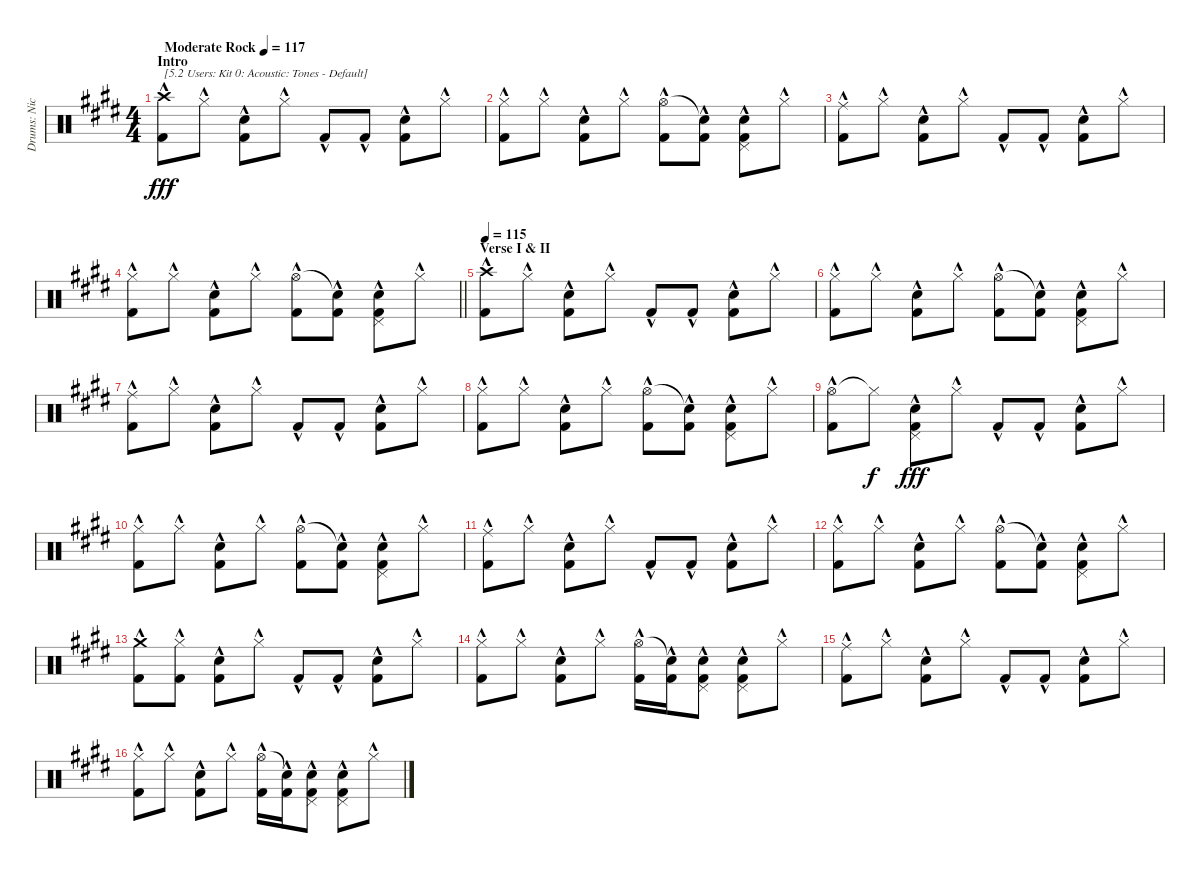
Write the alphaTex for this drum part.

\track ("Drums: Nick" "Drums: Nic") {instrument percussion}
\staff {score}
\articulation defaults
\ts (4 4)
\section ("" "Intro")
\tempo (117 "Moderate Rock")
\tempo 113
\tempo (117 "Moderate Rock")
\clef neutral
\ks e
("Crash high (hit)"{hac} "Kick (hit) 2"{hac}).8{txt "[5.2 Users: Kit 0: Acoustic: Tones - Default]" dy fff} "Hi-Hat (closed)"{hac}.8 ("Snare (hit) 2"{hac} "Kick (hit) 2"{hac}).8 "Hi-Hat (closed)"{hac}.8 "Kick (hit) 2"{hac}.8 "Kick (hit) 2"{hac}.8 ("Snare (hit) 2"{hac} "Kick (hit) 2"{hac}).8 "Hi-Hat (closed)"{hac}.8 |
("Hi-Hat (closed)" "Kick (hit) 2"{hac}).8 "Hi-Hat (closed)"{hac}.8 ("Snare (hit) 2"{hac} "Kick (hit) 2"{hac}).8 "Hi-Hat (closed)"{hac}.8 ("Hi-Hat (open)" "Kick (hit) 2"{hac}).8 ("Snare (hit)"{t} "Kick (hit) 2"{hac}).8 ("Pedal Hi-Hat (hit)" "Snare (hit) 2"{hac} "Kick (hit) 2"{hac}).8 "Hi-Hat (closed)"{hac}.8 |
("Ride (middle)" "Kick (hit) 2"{hac}).8 "Hi-Hat (closed)"{hac}.8 ("Snare (hit) 2"{hac} "Kick (hit) 2"{hac}).8 "Hi-Hat (closed)"{hac}.8 "Kick (hit) 2"{hac}.8 "Kick (hit) 2"{hac}.8 ("Snare (hit) 2"{hac} "Kick (hit) 2"{hac}).8 "Hi-Hat (closed)"{hac}.8 |
\barLineRight lightlight
("Hi-Hat (closed)" "Kick (hit) 2"{hac}).8 "Hi-Hat (closed)"{hac}.8 ("Snare (hit) 2"{hac} "Kick (hit) 2"{hac}).8 "Hi-Hat (closed)"{hac}.8 ("Hi-Hat (open)" "Kick (hit) 2"{hac}).8 ("Snare (hit)"{t} "Kick (hit) 2"{hac}).8 ("Pedal Hi-Hat (hit)" "Snare (hit) 2"{hac} "Kick (hit) 2"{hac}).8 "Hi-Hat (closed)"{hac}.8 |
\section ("" "Verse I & II")
\tempo 115
("Crash high (hit)"{hac} "Kick (hit) 2"{hac}).8 "Hi-Hat (closed)"{hac}.8 ("Snare (hit) 2"{hac} "Kick (hit) 2"{hac}).8 "Hi-Hat (closed)"{hac}.8 "Kick (hit) 2"{hac}.8 "Kick (hit) 2"{hac}.8 ("Snare (hit) 2"{hac} "Kick (hit) 2"{hac}).8 "Hi-Hat (closed)"{hac}.8 |
("Hi-Hat (closed)" "Kick (hit) 2"{hac}).8 "Hi-Hat (closed)"{hac}.8 ("Snare (hit) 2"{hac} "Kick (hit) 2"{hac}).8 "Hi-Hat (closed)"{hac}.8 ("Hi-Hat (open)" "Kick (hit) 2"{hac}).8 ("Snare (hit)"{t} "Kick (hit) 2"{hac}).8 ("Pedal Hi-Hat (hit)" "Snare (hit) 2"{hac} "Kick (hit) 2"{hac}).8 "Hi-Hat (closed)"{hac}.8 |
("Ride (middle)" "Kick (hit) 2"{hac}).8 "Hi-Hat (closed)"{hac}.8 ("Snare (hit) 2"{hac} "Kick (hit) 2"{hac}).8 "Hi-Hat (closed)"{hac}.8 "Kick (hit) 2"{hac}.8 "Kick (hit) 2"{hac}.8 ("Snare (hit) 2"{hac} "Kick (hit) 2"{hac}).8 "Hi-Hat (closed)"{hac}.8 |
("Hi-Hat (closed)" "Kick (hit) 2"{hac}).8 "Hi-Hat (closed)"{hac}.8 ("Snare (hit) 2"{hac} "Kick (hit) 2"{hac}).8 "Hi-Hat (closed)"{hac}.8 ("Hi-Hat (open)" "Kick (hit) 2"{hac}).8 ("Snare (hit)"{t} "Kick (hit) 2"{hac}).8 ("Pedal Hi-Hat (hit)" "Snare (hit) 2"{hac} "Kick (hit) 2"{hac}).8 "Hi-Hat (closed)"{hac}.8 |
("Hi-Hat (open)" "Kick (hit) 2"{hac}).8 "Hi-Hat (closed)"{t}.8{dy f} ("Pedal Hi-Hat (hit)" "Snare (hit) 2"{hac} "Kick (hit) 2"{hac}).8{dy fff} "Hi-Hat (closed)"{hac}.8 "Kick (hit) 2"{hac}.8 "Kick (hit) 2"{hac}.8 ("Snare (hit) 2"{hac} "Kick (hit) 2"{hac}).8 "Hi-Hat (closed)"{hac}.8 |
("Hi-Hat (closed)" "Kick (hit) 2"{hac}).8 "Hi-Hat (closed)"{hac}.8 ("Snare (hit) 2"{hac} "Kick (hit) 2"{hac}).8 "Hi-Hat (closed)"{hac}.8 ("Hi-Hat (open)" "Kick (hit) 2"{hac}).8 ("Snare (hit)"{t} "Kick (hit) 2"{hac}).8 ("Pedal Hi-Hat (hit)" "Snare (hit) 2"{hac} "Kick (hit) 2"{hac}).8 "Hi-Hat (closed)"{hac}.8 |
("Ride (middle)" "Kick (hit) 2"{hac}).8 "Hi-Hat (closed)"{hac}.8 ("Snare (hit) 2"{hac} "Kick (hit) 2"{hac}).8 "Hi-Hat (closed)"{hac}.8 "Kick (hit) 2"{hac}.8 "Kick (hit) 2"{hac}.8 ("Snare (hit) 2"{hac} "Kick (hit) 2"{hac}).8 "Hi-Hat (closed)"{hac}.8 |
("Hi-Hat (closed)" "Kick (hit) 2"{hac}).8 "Hi-Hat (closed)"{hac}.8 ("Snare (hit) 2"{hac} "Kick (hit) 2"{hac}).8 "Hi-Hat (closed)"{hac}.8 ("Hi-Hat (open)" "Kick (hit) 2"{hac}).8 ("Snare (hit)"{t} "Kick (hit) 2"{hac}).8 ("Pedal Hi-Hat (hit)" "Snare (hit) 2"{hac} "Kick (hit) 2"{hac}).8 "Hi-Hat (closed)"{hac}.8 |
("Crash medium (hit)"{hac} "Kick (hit) 2"{hac}).8 ("Hi-Hat (closed)"{hac} "Kick (hit) 2").8 ("Snare (hit) 2"{hac} "Kick (hit) 2"{hac}).8 "Hi-Hat (closed)"{hac}.8 "Kick (hit) 2"{hac}.8 "Kick (hit) 2"{hac}.8 ("Snare (hit) 2"{hac} "Kick (hit) 2"{hac}).8 "Hi-Hat (closed)"{hac}.8 |
("Hi-Hat (closed)" "Kick (hit) 2"{hac}).8 "Hi-Hat (closed)"{hac}.8 ("Snare (hit) 2"{hac} "Kick (hit) 2"{hac}).8 "Hi-Hat (closed)"{hac}.8 ("Hi-Hat (open)" "Kick (hit) 2"{hac}).16 ("Snare (hit)"{t} "Kick (hit) 2"{hac}).16 ("Pedal Hi-Hat (hit)" "Snare (hit) 2"{hac} "Kick (hit) 2"{hac}).8 ("Pedal Hi-Hat (hit)" "Snare (hit) 2"{hac} "Kick (hit) 2"{hac}).8 "Hi-Hat (closed)"{hac}.8 |
("Ride (middle)" "Kick (hit) 2"{hac}).8 "Hi-Hat (closed)"{hac}.8 ("Snare (hit) 2"{hac} "Kick (hit) 2"{hac}).8 "Hi-Hat (closed)"{hac}.8 "Kick (hit) 2"{hac}.8 "Kick (hit) 2"{hac}.8 ("Snare (hit) 2"{hac} "Kick (hit) 2"{hac}).8 "Hi-Hat (closed)"{hac}.8 |
("Hi-Hat (closed)" "Kick (hit) 2"{hac}).8 "Hi-Hat (closed)"{hac}.8 ("Snare (hit) 2"{hac} "Kick (hit) 2"{hac}).8 "Hi-Hat (closed)"{hac}.8 ("Hi-Hat (open)" "Kick (hit) 2"{hac}).16 ("Snare (hit)"{t} "Kick (hit) 2"{hac}).16 ("Pedal Hi-Hat (hit)" "Snare (hit) 2"{hac} "Kick (hit) 2"{hac}).8 ("Pedal Hi-Hat (hit)" "Snare (hit) 2"{hac} "Kick (hit) 2"{hac}).8 "Hi-Hat (closed)"{hac}.8
